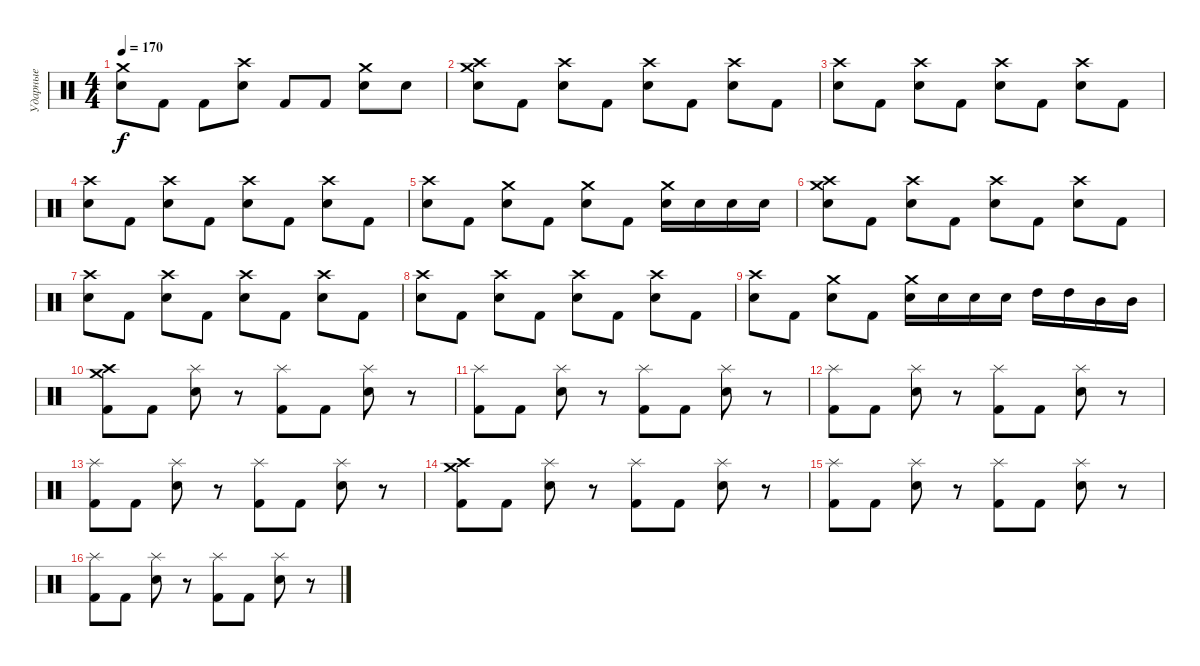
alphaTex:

\track ("Ударные" "Ударные") {instrument percussion}
\staff {score}
\articulation defaults
\ts (4 4)
\tempo 170
\clef neutral
\ks c
("Crash medium (hit)" "Electric Snare (hit)").8{dy f} "Kick (hit) 2".8 "Kick (hit) 2".8 ("Crash high (hit)" "Electric Snare (hit)").8 "Kick (hit) 2".8 "Kick (hit) 2".8 ("Crash medium (hit)" "Electric Snare (hit)").8 "Electric Snare (hit)".8 |
("Crash medium (hit)" "Crash high (hit)" "Electric Snare (hit)").8 "Kick (hit) 2".8 ("Crash high (hit)" "Electric Snare (hit)").8 "Kick (hit) 2".8 ("Crash high (hit)" "Electric Snare (hit)").8 "Kick (hit) 2".8 ("Crash high (hit)" "Electric Snare (hit)").8 "Kick (hit) 2".8 |
("Crash high (hit)" "Electric Snare (hit)").8 "Kick (hit) 2".8 ("Crash high (hit)" "Electric Snare (hit)").8 "Kick (hit) 2".8 ("Crash high (hit)" "Electric Snare (hit)").8 "Kick (hit) 2".8 ("Crash high (hit)" "Electric Snare (hit)").8 "Kick (hit) 2".8 |
("Crash high (hit)" "Electric Snare (hit)").8 "Kick (hit) 2".8 ("Crash high (hit)" "Electric Snare (hit)").8 "Kick (hit) 2".8 ("Crash high (hit)" "Electric Snare (hit)").8 "Kick (hit) 2".8 ("Crash high (hit)" "Electric Snare (hit)").8 "Kick (hit) 2".8 |
("Crash high (hit)" "Electric Snare (hit)").8 "Kick (hit) 2".8 ("Crash medium (hit)" "Electric Snare (hit)").8 "Kick (hit) 2".8 ("Crash medium (hit)" "Electric Snare (hit)").8 "Kick (hit) 2".8 ("Crash medium (hit)" "Electric Snare (hit)").16 "Electric Snare (hit)".16 "Electric Snare (hit)".16 "Electric Snare (hit)".16 |
("Crash medium (hit)" "Crash high (hit)" "Electric Snare (hit)").8 "Kick (hit) 2".8 ("Crash high (hit)" "Electric Snare (hit)").8 "Kick (hit) 2".8 ("Crash high (hit)" "Electric Snare (hit)").8 "Kick (hit) 2".8 ("Crash high (hit)" "Electric Snare (hit)").8 "Kick (hit) 2".8 |
("Crash high (hit)" "Electric Snare (hit)").8 "Kick (hit) 2".8 ("Crash high (hit)" "Electric Snare (hit)").8 "Kick (hit) 2".8 ("Crash high (hit)" "Electric Snare (hit)").8 "Kick (hit) 2".8 ("Crash high (hit)" "Electric Snare (hit)").8 "Kick (hit) 2".8 |
("Crash high (hit)" "Electric Snare (hit)").8 "Kick (hit) 2".8 ("Crash high (hit)" "Electric Snare (hit)").8 "Kick (hit) 2".8 ("Crash high (hit)" "Electric Snare (hit)").8 "Kick (hit) 2".8 ("Crash high (hit)" "Electric Snare (hit)").8 "Kick (hit) 2".8 |
("Crash high (hit)" "Electric Snare (hit)").8 "Kick (hit) 2".8 ("Crash medium (hit)" "Electric Snare (hit)").8 "Kick (hit) 2".8 ("Crash medium (hit)" "Electric Snare (hit)").16 "Electric Snare (hit)".16 "Electric Snare (hit)".16 "Electric Snare (hit)".16 "High Tom (hit)".16 "High Tom (hit)".16 "Mid Tom (hit)".16 "Mid Tom (hit)".16 |
("Crash medium (hit)" "Crash high (hit)" "Kick (hit) 2").8 "Kick (hit) 2".8 ("Splash (hit)" "Electric Snare (hit)").8 r.8 ("Splash (hit)" "Kick (hit) 2").8 "Kick (hit) 2".8 ("Splash (hit)" "Electric Snare (hit)").8 r.8 |
("Splash (hit)" "Kick (hit) 2").8 "Kick (hit) 2".8 ("Splash (hit)" "Electric Snare (hit)").8 r.8 ("Splash (hit)" "Kick (hit) 2").8 "Kick (hit) 2".8 ("Splash (hit)" "Electric Snare (hit)").8 r.8 |
("Splash (hit)" "Kick (hit) 2").8 "Kick (hit) 2".8 ("Splash (hit)" "Electric Snare (hit)").8 r.8 ("Splash (hit)" "Kick (hit) 2").8 "Kick (hit) 2".8 ("Splash (hit)" "Electric Snare (hit)").8 r.8 |
("Splash (hit)" "Kick (hit) 2").8 "Kick (hit) 2".8 ("Splash (hit)" "Electric Snare (hit)").8 r.8 ("Splash (hit)" "Kick (hit) 2").8 "Kick (hit) 2".8 ("Splash (hit)" "Electric Snare (hit)").8 r.8 |
("Crash medium (hit)" "Crash high (hit)" "Kick (hit) 2").8 "Kick (hit) 2".8 ("Splash (hit)" "Electric Snare (hit)").8 r.8 ("Splash (hit)" "Kick (hit) 2").8 "Kick (hit) 2".8 ("Splash (hit)" "Electric Snare (hit)").8 r.8 |
("Splash (hit)" "Kick (hit) 2").8 "Kick (hit) 2".8 ("Splash (hit)" "Electric Snare (hit)").8 r.8 ("Splash (hit)" "Kick (hit) 2").8 "Kick (hit) 2".8 ("Splash (hit)" "Electric Snare (hit)").8 r.8 |
("Splash (hit)" "Kick (hit) 2").8 "Kick (hit) 2".8 ("Splash (hit)" "Electric Snare (hit)").8 r.8 ("Splash (hit)" "Kick (hit) 2").8 "Kick (hit) 2".8 ("Splash (hit)" "Electric Snare (hit)").8 r.8
